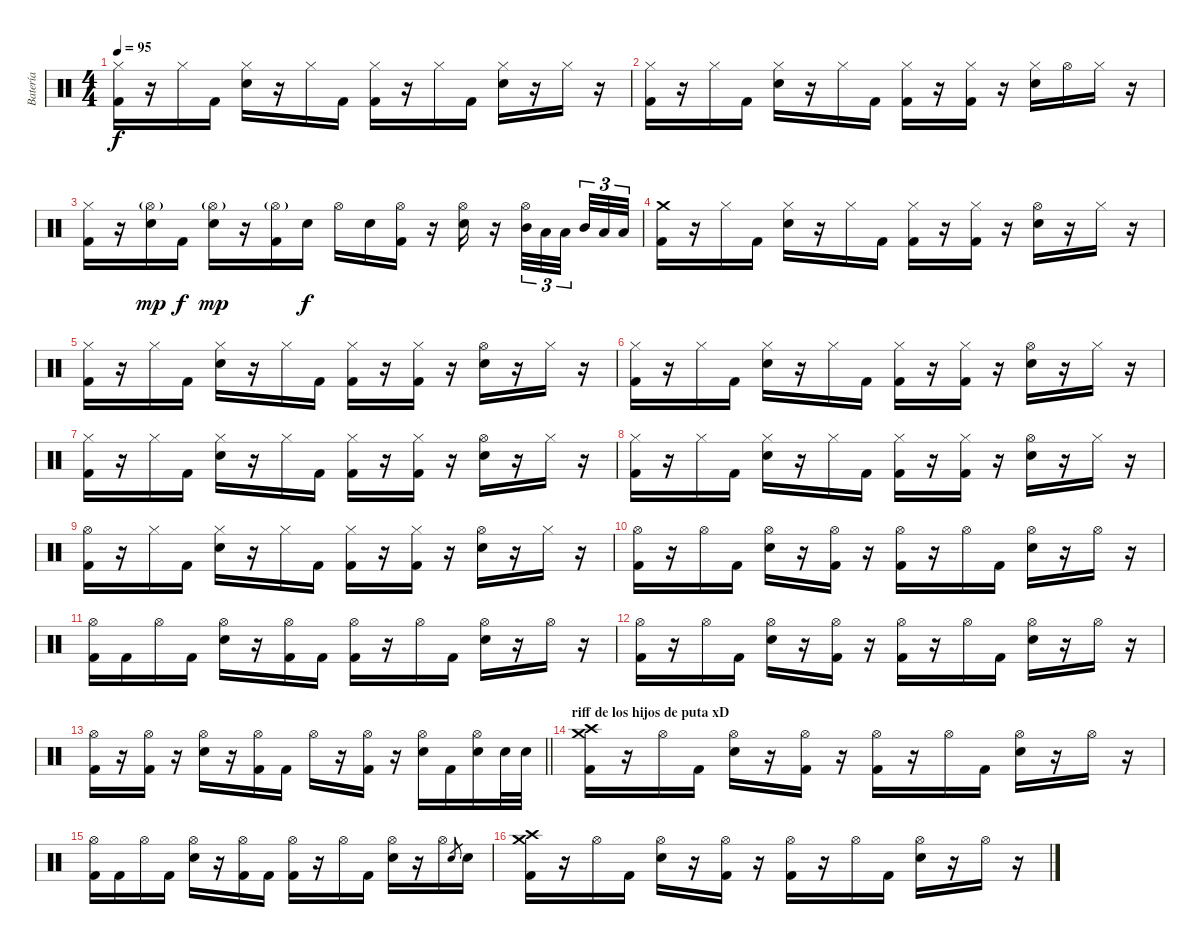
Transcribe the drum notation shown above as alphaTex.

\track ("Batería" "Batería") {instrument percussion}
\staff {score}
\articulation defaults
\ts (4 4)
\tempo 95
\clef neutral
\ks c
("Hi-Hat (closed)" "Kick (hit) 2").16{dy f} r.16 "Hi-Hat (closed)".16 "Kick (hit) 2".16 ("Hi-Hat (closed)" "Snare (hit) 2").16 r.16 "Hi-Hat (closed)".16 "Kick (hit) 2".16 ("Hi-Hat (closed)" "Kick (hit) 2").16 r.16 "Hi-Hat (closed)".16 "Kick (hit) 2".16 ("Hi-Hat (closed)" "Snare (hit) 2").16 r.16 "Hi-Hat (closed)".16 r.16 |
("Hi-Hat (closed)" "Kick (hit) 2").16 r.16 "Hi-Hat (closed)".16 "Kick (hit) 2".16 ("Hi-Hat (closed)" "Snare (hit) 2").16 r.16 "Hi-Hat (closed)".16 "Kick (hit) 2".16 ("Hi-Hat (closed)" "Kick (hit) 2").16 r.16 ("Hi-Hat (closed)" "Kick (hit) 2").16 r.16 ("Hi-Hat (closed)" "Snare (hit) 2").16 "Hi-Hat (open)".16 "Hi-Hat (closed)".16 r.16 |
("Hi-Hat (closed)" "Kick (hit) 2").16 r.16 ("Hi-Hat (open)"{g} "Snare (hit) 2").16{dy mp} "Kick (hit) 2".16{dy f} ("Hi-Hat (open)"{g} "Snare (hit) 2").16{dy mp} r.16 ("Hi-Hat (open)"{g} "Kick (hit) 2").16 "Snare (hit) 2".16{dy f} "Hi-Hat (open)".16 "Snare (hit) 2".16 ("Hi-Hat (open)" "Kick (hit) 2").16 r.16 ("Hi-Hat (open)" "Snare (hit) 2").16 r.16 ("Hi-Hat (open)" "Mid Tom (hit)").32{tu (3 2)} "Low Tom (hit)".32{tu (3 2)} "Low Floor Tom (hit)".32{tu (3 2) beam splitsecondary} "Mid Tom (hit)".32{tu (3 2)} "Low Tom (hit)".32{tu (3 2)} "Low Floor Tom (hit)".32{tu (3 2)} |
("Crash medium (hit)" "Kick (hit) 2").16 r.16 "Hi-Hat (closed)".16 "Kick (hit) 2".16 ("Hi-Hat (closed)" "Snare (hit) 2").16 r.16 "Hi-Hat (closed)".16 "Kick (hit) 2".16 ("Hi-Hat (closed)" "Kick (hit) 2").16 r.16 ("Hi-Hat (closed)" "Kick (hit) 2").16 r.16 ("Hi-Hat (open)" "Snare (hit) 2").16 r.16 "Hi-Hat (closed)".16 r.16 |
("Hi-Hat (closed)" "Kick (hit) 2").16 r.16 "Hi-Hat (closed)".16 "Kick (hit) 2".16 ("Hi-Hat (closed)" "Snare (hit) 2").16 r.16 "Hi-Hat (closed)".16 "Kick (hit) 2".16 ("Hi-Hat (closed)" "Kick (hit) 2").16 r.16 ("Hi-Hat (closed)" "Kick (hit) 2").16 r.16 ("Hi-Hat (open)" "Snare (hit) 2").16 r.16 "Hi-Hat (closed)".16 r.16 |
("Hi-Hat (closed)" "Kick (hit) 2").16 r.16 "Hi-Hat (closed)".16 "Kick (hit) 2".16 ("Hi-Hat (closed)" "Snare (hit) 2").16 r.16 "Hi-Hat (closed)".16 "Kick (hit) 2".16 ("Hi-Hat (closed)" "Kick (hit) 2").16 r.16 ("Hi-Hat (closed)" "Kick (hit) 2").16 r.16 ("Hi-Hat (open)" "Snare (hit) 2").16 r.16 "Hi-Hat (closed)".16 r.16 |
("Hi-Hat (closed)" "Kick (hit) 2").16 r.16 "Hi-Hat (closed)".16 "Kick (hit) 2".16 ("Hi-Hat (closed)" "Snare (hit) 2").16 r.16 "Hi-Hat (closed)".16 "Kick (hit) 2".16 ("Hi-Hat (closed)" "Kick (hit) 2").16 r.16 ("Hi-Hat (closed)" "Kick (hit) 2").16 r.16 ("Hi-Hat (open)" "Snare (hit) 2").16 r.16 "Hi-Hat (closed)".16 r.16 |
("Hi-Hat (closed)" "Kick (hit) 2").16 r.16 "Hi-Hat (closed)".16 "Kick (hit) 2".16 ("Hi-Hat (closed)" "Snare (hit) 2").16 r.16 "Hi-Hat (closed)".16 "Kick (hit) 2".16 ("Hi-Hat (closed)" "Kick (hit) 2").16 r.16 ("Hi-Hat (closed)" "Kick (hit) 2").16 r.16 ("Hi-Hat (open)" "Snare (hit) 2").16 r.16 "Hi-Hat (closed)".16 r.16 |
("Hi-Hat (open)" "Kick (hit) 2").16 r.16 "Hi-Hat (closed)".16 "Kick (hit) 2".16 ("Hi-Hat (closed)" "Snare (hit) 2").16 r.16 "Hi-Hat (closed)".16 "Kick (hit) 2".16 ("Hi-Hat (closed)" "Kick (hit) 2").16 r.16 ("Hi-Hat (closed)" "Kick (hit) 2").16 r.16 ("Hi-Hat (open)" "Snare (hit) 2").16 r.16 "Hi-Hat (closed)".16 r.16 |
("Hi-Hat (open)" "Kick (hit) 2").16 r.16 "Hi-Hat (open)".16 "Kick (hit) 2".16 ("Hi-Hat (open)" "Snare (hit) 2").16 r.16 ("Hi-Hat (open)" "Kick (hit) 2").16 r.16 ("Hi-Hat (open)" "Kick (hit) 2").16 r.16 "Hi-Hat (open)".16 "Kick (hit) 2".16 ("Hi-Hat (open)" "Snare (hit) 2").16 r.16 "Hi-Hat (open)".16 r.16 |
("Hi-Hat (open)" "Kick (hit) 2").16 "Kick (hit) 2".16 "Hi-Hat (open)".16 "Kick (hit) 2".16 ("Hi-Hat (open)" "Snare (hit) 2").16 r.16 ("Hi-Hat (open)" "Kick (hit) 2").16 "Kick (hit) 2".16 ("Hi-Hat (open)" "Kick (hit) 2").16 r.16 "Hi-Hat (open)".16 "Kick (hit) 2".16 ("Hi-Hat (open)" "Snare (hit) 2").16 r.16 "Hi-Hat (open)".16 r.16 |
("Hi-Hat (open)" "Kick (hit) 2").16 r.16 "Hi-Hat (open)".16 "Kick (hit) 2".16 ("Hi-Hat (open)" "Snare (hit) 2").16 r.16 ("Hi-Hat (open)" "Kick (hit) 2").16 r.16 ("Hi-Hat (open)" "Kick (hit) 2").16 r.16 "Hi-Hat (open)".16 "Kick (hit) 2".16 ("Hi-Hat (open)" "Snare (hit) 2").16 r.16 "Hi-Hat (open)".16 r.16 |
\barLineRight lightlight
("Hi-Hat (open)" "Kick (hit) 2").16 r.16 ("Hi-Hat (open)" "Kick (hit) 2").16 r.16 ("Hi-Hat (open)" "Snare (hit) 2").16 r.16 ("Hi-Hat (open)" "Kick (hit) 2").16 "Kick (hit) 2".16 "Hi-Hat (open)".16 r.16 ("Hi-Hat (open)" "Kick (hit) 2").16 r.16 ("Hi-Hat (open)" "Snare (hit) 2").16 "Kick (hit) 2".16 ("Hi-Hat (open)" "Snare (hit) 2").16 "Snare (hit) 2".32 "Snare (hit) 2".32 |
\section ("" "riff de los hijos de puta xD")
("Crash medium (hit)" "Crash high (hit)" "Kick (hit) 2").16 r.16 "Hi-Hat (open)".16 "Kick (hit) 2".16 ("Hi-Hat (open)" "Snare (hit) 2").16 r.16 ("Hi-Hat (open)" "Kick (hit) 2").16 r.16 ("Hi-Hat (open)" "Kick (hit) 2").16 r.16 "Hi-Hat (open)".16 "Kick (hit) 2".16 ("Hi-Hat (open)" "Snare (hit) 2").16 r.16 "Hi-Hat (open)".16 r.16 |
("Hi-Hat (open)" "Kick (hit) 2").16 "Kick (hit) 2".16 "Hi-Hat (open)".16 "Kick (hit) 2".16 ("Hi-Hat (open)" "Snare (hit) 2").16 r.16 ("Hi-Hat (open)" "Kick (hit) 2").16 "Kick (hit) 2".16 ("Hi-Hat (open)" "Kick (hit) 2").16 r.16 "Hi-Hat (open)".16 "Kick (hit) 2".16 ("Hi-Hat (open)" "Snare (hit) 2").16 r.16 "Hi-Hat (open)".16 "Snare (hit) 2".8{gr} "Snare (hit) 2".16 |
("Crash medium (hit)" "Crash high (hit)" "Kick (hit) 2").16 r.16 "Hi-Hat (open)".16 "Kick (hit) 2".16 ("Hi-Hat (open)" "Snare (hit) 2").16 r.16 ("Hi-Hat (open)" "Kick (hit) 2").16 r.16 ("Hi-Hat (open)" "Kick (hit) 2").16 r.16 "Hi-Hat (open)".16 "Kick (hit) 2".16 ("Hi-Hat (open)" "Snare (hit) 2").16 r.16 "Hi-Hat (open)".16 r.16
